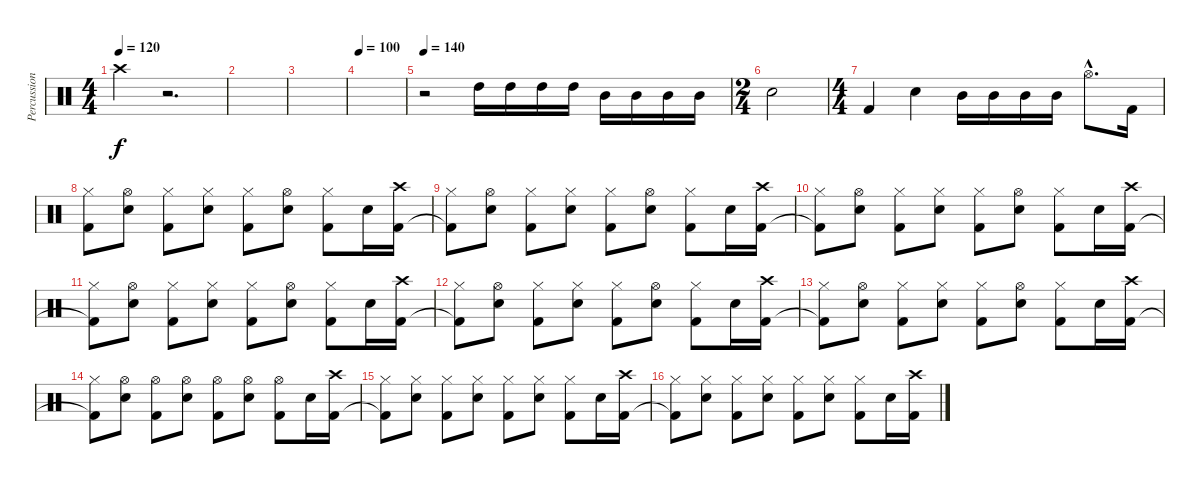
\track ("Percussion" "Percussion") {instrument percussion}
\staff {score}
\articulation defaults
\ts (4 4)
\tempo 120
\clef neutral
\ks c "Crash high (hit)".4{dy f}
r.2{d} |
|
|
\tempo 100
|
\tempo 140
r.2 "High Tom (hit)".16 "High Tom (hit)".16 "High Tom (hit)".16 "High Tom (hit)".16 "Mid Tom (hit)".16 "Mid Tom (hit)".16 "Mid Tom (hit)".16 "Mid Tom (hit)".16 |
\ts (2 4)
"Snare (hit) 2".2 |
\ts (4 4)
"Kick (hit) 2".4 "Snare (hit) 2".4 "Mid Tom (hit)".16 "Mid Tom (hit)".16 "Mid Tom (hit)".16 "Mid Tom (hit)".16 "Hi-Hat (open)"{hac}.8{d} "Kick (hit) 2".16 |
("Hi-Hat (closed)" "Kick (hit) 2").8 ("Hi-Hat (open)" "Snare (hit) 2").8 ("Hi-Hat (closed)" "Kick (hit) 2").8 ("Hi-Hat (closed)" "Snare (hit) 2").8 ("Hi-Hat (closed)" "Kick (hit) 2").8 ("Hi-Hat (open)" "Snare (hit) 2").8 ("Hi-Hat (closed)" "Kick (hit) 2").8 "Snare (hit) 2".16 ("Crash high (hit)" "Kick (hit) 2").16 |
("Hi-Hat (closed)" "Kick (hit) 2"{t}).8 ("Hi-Hat (open)" "Snare (hit) 2").8 ("Hi-Hat (closed)" "Kick (hit) 2").8 ("Hi-Hat (closed)" "Snare (hit) 2").8 ("Hi-Hat (closed)" "Kick (hit) 2").8 ("Hi-Hat (open)" "Snare (hit) 2").8 ("Hi-Hat (closed)" "Kick (hit) 2").8 "Snare (hit) 2".16 ("Crash high (hit)" "Kick (hit) 2").16 |
("Hi-Hat (closed)" "Kick (hit) 2"{t}).8 ("Hi-Hat (open)" "Snare (hit) 2").8 ("Hi-Hat (closed)" "Kick (hit) 2").8 ("Hi-Hat (closed)" "Snare (hit) 2").8 ("Hi-Hat (closed)" "Kick (hit) 2").8 ("Hi-Hat (open)" "Snare (hit) 2").8 ("Hi-Hat (closed)" "Kick (hit) 2").8 "Snare (hit) 2".16 ("Crash high (hit)" "Kick (hit) 2").16 |
("Hi-Hat (closed)" "Kick (hit) 2"{t}).8 ("Hi-Hat (open)" "Snare (hit) 2").8 ("Hi-Hat (closed)" "Kick (hit) 2").8 ("Hi-Hat (closed)" "Snare (hit) 2").8 ("Hi-Hat (closed)" "Kick (hit) 2").8 ("Hi-Hat (open)" "Snare (hit) 2").8 ("Hi-Hat (closed)" "Kick (hit) 2").8 "Snare (hit) 2".16 ("Crash high (hit)" "Kick (hit) 2").16 |
("Hi-Hat (closed)" "Kick (hit) 2"{t}).8 ("Hi-Hat (open)" "Snare (hit) 2").8 ("Hi-Hat (closed)" "Kick (hit) 2").8 ("Hi-Hat (closed)" "Snare (hit) 2").8 ("Hi-Hat (closed)" "Kick (hit) 2").8 ("Hi-Hat (open)" "Snare (hit) 2").8 ("Hi-Hat (closed)" "Kick (hit) 2").8 "Snare (hit) 2".16 ("Crash high (hit)" "Kick (hit) 2").16 |
("Hi-Hat (closed)" "Kick (hit) 2"{t}).8 ("Hi-Hat (open)" "Snare (hit) 2").8 ("Hi-Hat (closed)" "Kick (hit) 2").8 ("Hi-Hat (closed)" "Snare (hit) 2").8 ("Hi-Hat (closed)" "Kick (hit) 2").8 ("Hi-Hat (open)" "Snare (hit) 2").8 ("Hi-Hat (closed)" "Kick (hit) 2").8 "Snare (hit) 2".16 ("Crash high (hit)" "Kick (hit) 2").16 |
("Hi-Hat (closed)" "Kick (hit) 2"{t}).8 ("Hi-Hat (open)" "Snare (hit) 2").8 ("Hi-Hat (open)" "Kick (hit) 2").8 ("Hi-Hat (open)" "Snare (hit) 2").8 ("Hi-Hat (open)" "Kick (hit) 2").8 ("Hi-Hat (open)" "Snare (hit) 2").8 ("Hi-Hat (open)" "Kick (hit) 2").8 "Snare (hit) 2".16 ("Crash high (hit)" "Kick (hit) 2").16 |
("Hi-Hat (closed)" "Kick (hit) 2"{t}).8 ("Hi-Hat (closed)" "Snare (hit) 2").8 ("Hi-Hat (closed)" "Kick (hit) 2").8 ("Hi-Hat (closed)" "Snare (hit) 2").8 ("Hi-Hat (closed)" "Kick (hit) 2").8 ("Hi-Hat (closed)" "Snare (hit) 2").8 ("Hi-Hat (closed)" "Kick (hit) 2").8 "Snare (hit) 2".16 ("Crash high (hit)" "Kick (hit) 2").16 |
("Hi-Hat (closed)" "Kick (hit) 2"{t}).8 ("Hi-Hat (closed)" "Snare (hit) 2").8 ("Hi-Hat (closed)" "Kick (hit) 2").8 ("Hi-Hat (closed)" "Snare (hit) 2").8 ("Hi-Hat (closed)" "Kick (hit) 2").8 ("Hi-Hat (closed)" "Snare (hit) 2").8 ("Hi-Hat (closed)" "Kick (hit) 2").8 "Snare (hit) 2".16 ("Crash high (hit)" "Kick (hit) 2").16
